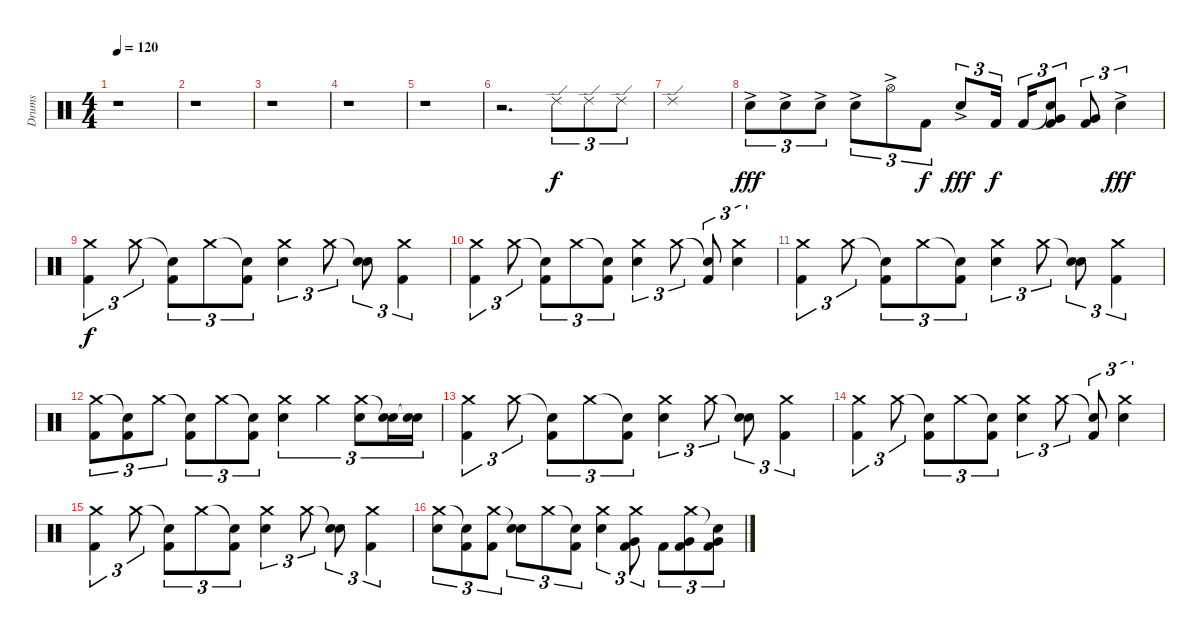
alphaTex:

\track ("Drums" "Drums") {instrument percussion}
\staff {score}
\articulation defaults
\ts (4 4)
\tempo 120
\clef neutral
\ks c
r.1{dy f} |
r.1 |
r.1 |
r.1 |
r.1 |
r.2{d} "Ride (edge) 2".8{tu (3 2)} "Ride (edge) 2".8{tu (3 2)} "Ride (edge) 2".8{tu (3 2)} |
"Ride (edge) 2".1 |
"Electric Snare (hit)"{ac}.8{tu (3 2) dy fff} "Electric Snare (hit)"{ac}.8{tu (3 2)} "Electric Snare (hit)"{ac}.8{tu (3 2)} "Electric Snare (hit)"{ac}.8{tu (3 2)} "Hi-Hat (open)"{ac}.8{tu (3 2)} "Kick (hit) 2".8{tu (3 2) dy f} "Electric Snare (hit)"{ac}.8{tu (3 2) dy fff} "Kick (hit) 2".16{tu (3 2) dy f} "Kick (hit) 2".16{tu (3 2)} ("Snare (hit)"{t} "Very Low Tom (hit)" "Kick (hit) 2").8{tu (3 2)} ("Very Low Tom (hit)" "Kick (hit) 2").8{tu (3 2)} "Electric Snare (hit)"{ac}.4{tu (3 2) dy fff} |
("Crash medium (hit)" "Kick (hit) 2").4{tu (3 2) dy f} "Crash medium (hit)".8{tu (3 2)} ("Snare (hit)"{t} "Kick (hit) 2").8{tu (3 2)} "Crash medium (hit)".8{tu (3 2)} ("Snare (hit)"{t} "Kick (hit) 2").8{tu (3 2)} ("Crash medium (hit)" "Electric Snare (hit)").4{tu (3 2)} "Crash medium (hit)".8{tu (3 2)} ("Snare (hit)"{t} "Electric Snare (hit)").8{tu (3 2)} ("Crash medium (hit)" "Kick (hit) 2").4{tu (3 2)} |
("Crash medium (hit)" "Kick (hit) 2").4{tu (3 2)} "Crash medium (hit)".8{tu (3 2)} ("Snare (hit)"{t} "Kick (hit) 2").8{tu (3 2)} "Crash medium (hit)".8{tu (3 2)} ("Snare (hit)"{t} "Kick (hit) 2").8{tu (3 2)} ("Crash medium (hit)" "Electric Snare (hit)").4{tu (3 2)} "Crash medium (hit)".8{tu (3 2)} ("Snare (hit)"{t} "Kick (hit) 2").8{tu (3 2)} ("Crash medium (hit)" "Electric Snare (hit)").4{tu (3 2)} |
("Crash medium (hit)" "Kick (hit) 2").4{tu (3 2)} "Crash medium (hit)".8{tu (3 2)} ("Snare (hit)"{t} "Kick (hit) 2").8{tu (3 2)} "Crash medium (hit)".8{tu (3 2)} ("Snare (hit)"{t} "Kick (hit) 2").8{tu (3 2)} ("Crash medium (hit)" "Electric Snare (hit)").4{tu (3 2)} "Crash medium (hit)".8{tu (3 2)} ("Snare (hit)"{t} "Electric Snare (hit)").8{tu (3 2)} ("Crash medium (hit)" "Kick (hit) 2").4{tu (3 2)} |
("Crash medium (hit)" "Kick (hit) 2").8{tu (3 2)} ("Snare (hit)"{t} "Kick (hit) 2").8{tu (3 2)} "Crash medium (hit)".8{tu (3 2)} ("Snare (hit)"{t} "Kick (hit) 2").8{tu (3 2)} "Crash medium (hit)".8{tu (3 2)} ("Snare (hit)"{t} "Kick (hit) 2").8{tu (3 2)} ("Crash medium (hit)" "Electric Snare (hit)").4{tu (3 2)} "Crash medium (hit)".4{tu (3 2)} ("Crash medium (hit)" "Electric Snare (hit)").8{tu (3 2)} ("Snare (hit)"{t} "Electric Snare (hit)").16{tu (3 2)} ("Snare (hit)"{t} "Electric Snare (hit)").16{tu (3 2)} |
("Crash medium (hit)" "Kick (hit) 2").4{tu (3 2)} "Crash medium (hit)".8{tu (3 2)} ("Snare (hit)"{t} "Kick (hit) 2").8{tu (3 2)} "Crash medium (hit)".8{tu (3 2)} ("Snare (hit)"{t} "Kick (hit) 2").8{tu (3 2)} ("Crash medium (hit)" "Electric Snare (hit)").4{tu (3 2)} "Crash medium (hit)".8{tu (3 2)} ("Snare (hit)"{t} "Electric Snare (hit)").8{tu (3 2)} ("Crash medium (hit)" "Kick (hit) 2").4{tu (3 2)} |
("Crash medium (hit)" "Kick (hit) 2").4{tu (3 2)} "Crash medium (hit)".8{tu (3 2)} ("Snare (hit)"{t} "Kick (hit) 2").8{tu (3 2)} "Crash medium (hit)".8{tu (3 2)} ("Snare (hit)"{t} "Kick (hit) 2").8{tu (3 2)} ("Crash medium (hit)" "Electric Snare (hit)").4{tu (3 2)} "Crash medium (hit)".8{tu (3 2)} ("Snare (hit)"{t} "Kick (hit) 2").8{tu (3 2)} ("Crash medium (hit)" "Electric Snare (hit)").4{tu (3 2)} |
("Crash medium (hit)" "Kick (hit) 2").4{tu (3 2)} "Crash medium (hit)".8{tu (3 2)} ("Snare (hit)"{t} "Kick (hit) 2").8{tu (3 2)} "Crash medium (hit)".8{tu (3 2)} ("Snare (hit)"{t} "Kick (hit) 2").8{tu (3 2)} ("Crash medium (hit)" "Electric Snare (hit)").4{tu (3 2)} "Crash medium (hit)".8{tu (3 2)} ("Snare (hit)"{t} "Electric Snare (hit)").8{tu (3 2)} ("Crash medium (hit)" "Kick (hit) 2").4{tu (3 2)} |
("Crash medium (hit)" "Electric Snare (hit)").8{tu (3 2)} ("Snare (hit)"{t} "Kick (hit) 2").8{tu (3 2)} ("Crash medium (hit)" "Kick (hit) 2").8{tu (3 2)} ("Snare (hit)"{t} "Electric Snare (hit)").8{tu (3 2)} "Crash medium (hit)".8{tu (3 2)} ("Snare (hit)"{t} "Kick (hit) 2").8{tu (3 2)} ("Crash medium (hit)" "Electric Snare (hit)").4{tu (3 2)} ("Crash medium (hit)" "Very Low Tom (hit)" "Kick (hit) 2").8{tu (3 2)} "Kick (hit) 2".8{tu (3 2)} ("Crash medium (hit)" "Very Low Tom (hit)" "Kick (hit) 2").8{tu (3 2)} ("Snare (hit)"{t} "Very Low Tom (hit)" "Kick (hit) 2").8{tu (3 2)}
